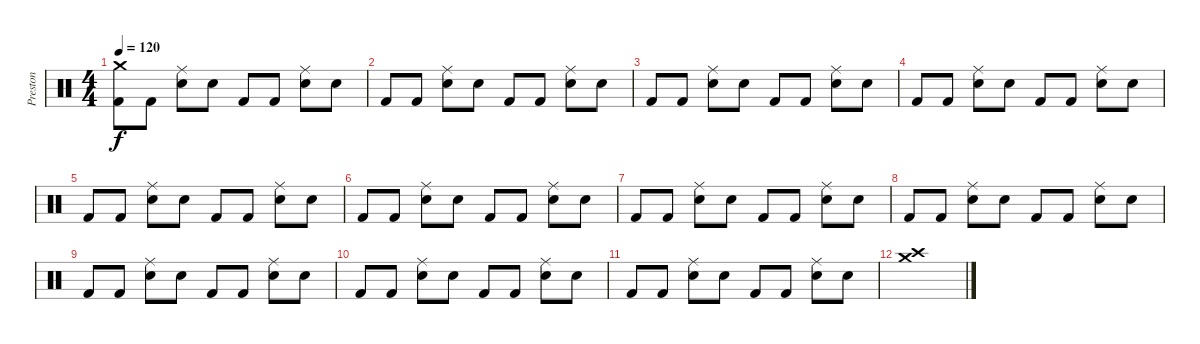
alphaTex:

\track ("Preston" "Preston") {instrument percussion}
\staff {score}
\articulation defaults
\ts (4 4)
\tempo 120
\clef neutral
\ks c
("Crash medium (hit)" "Kick (hit) 2").8{dy f} "Kick (hit) 2".8 ("Ride (middle)" "Electric Snare (hit)").8 "Electric Snare (hit)".8 "Kick (hit) 2".8 "Kick (hit) 2".8 ("Ride (middle)" "Electric Snare (hit)").8 "Electric Snare (hit)".8 |
"Kick (hit) 2".8 "Kick (hit) 2".8 ("Ride (middle)" "Electric Snare (hit)").8 "Electric Snare (hit)".8 "Kick (hit) 2".8 "Kick (hit) 2".8 ("Ride (middle)" "Electric Snare (hit)").8 "Electric Snare (hit)".8 |
"Kick (hit) 2".8 "Kick (hit) 2".8 ("Ride (middle)" "Electric Snare (hit)").8 "Electric Snare (hit)".8 "Kick (hit) 2".8 "Kick (hit) 2".8 ("Ride (middle)" "Electric Snare (hit)").8 "Electric Snare (hit)".8 |
"Kick (hit) 2".8 "Kick (hit) 2".8 ("Ride (middle)" "Electric Snare (hit)").8 "Electric Snare (hit)".8 "Kick (hit) 2".8 "Kick (hit) 2".8 ("Ride (middle)" "Electric Snare (hit)").8 "Electric Snare (hit)".8 |
"Kick (hit) 2".8 "Kick (hit) 2".8 ("Ride (middle)" "Electric Snare (hit)").8 "Electric Snare (hit)".8 "Kick (hit) 2".8 "Kick (hit) 2".8 ("Ride (middle)" "Electric Snare (hit)").8 "Electric Snare (hit)".8 |
"Kick (hit) 2".8 "Kick (hit) 2".8 ("Ride (middle)" "Electric Snare (hit)").8 "Electric Snare (hit)".8 "Kick (hit) 2".8 "Kick (hit) 2".8 ("Ride (middle)" "Electric Snare (hit)").8 "Electric Snare (hit)".8 |
"Kick (hit) 2".8 "Kick (hit) 2".8 ("Ride (middle)" "Electric Snare (hit)").8 "Electric Snare (hit)".8 "Kick (hit) 2".8 "Kick (hit) 2".8 ("Ride (middle)" "Electric Snare (hit)").8 "Electric Snare (hit)".8 |
"Kick (hit) 2".8 "Kick (hit) 2".8 ("Ride (middle)" "Electric Snare (hit)").8 "Electric Snare (hit)".8 "Kick (hit) 2".8 "Kick (hit) 2".8 ("Ride (middle)" "Electric Snare (hit)").8 "Electric Snare (hit)".8 |
"Kick (hit) 2".8 "Kick (hit) 2".8 ("Ride (middle)" "Electric Snare (hit)").8 "Electric Snare (hit)".8 "Kick (hit) 2".8 "Kick (hit) 2".8 ("Ride (middle)" "Electric Snare (hit)").8 "Electric Snare (hit)".8 |
"Kick (hit) 2".8 "Kick (hit) 2".8 ("Ride (middle)" "Electric Snare (hit)").8 "Electric Snare (hit)".8 "Kick (hit) 2".8 "Kick (hit) 2".8 ("Ride (middle)" "Electric Snare (hit)").8 "Electric Snare (hit)".8 |
"Kick (hit) 2".8 "Kick (hit) 2".8 ("Ride (middle)" "Electric Snare (hit)").8 "Electric Snare (hit)".8 "Kick (hit) 2".8 "Kick (hit) 2".8 ("Ride (middle)" "Electric Snare (hit)").8 "Electric Snare (hit)".8 |
("Crash medium (hit)" "Crash high (hit)").1
